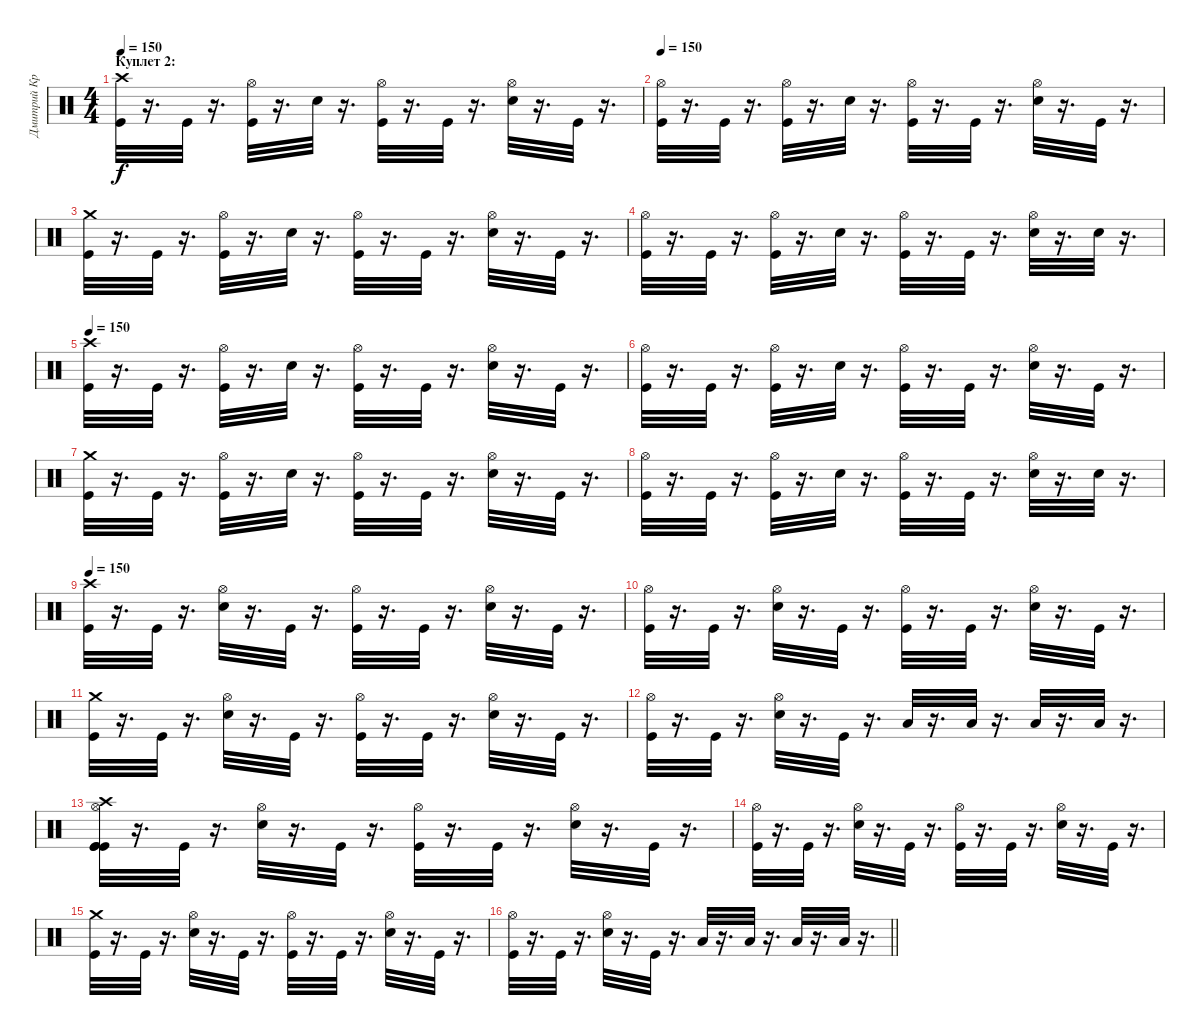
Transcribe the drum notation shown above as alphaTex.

\track ("Дмитрий Кривенков" "Дмитрий Кр") {instrument percussion}
\staff {score}
\articulation defaults
\ts (4 4)
\section ("" "Куплет 2:")
\tempo 150
\clef neutral
\ks c
("Crash high (hit)" "Kick (hit)").32{dy f} r.16{d} "Kick (hit)".32 r.16{d} ("Hi-Hat (open)" "Kick (hit)").32 r.16{d} "Electric Snare (hit)".32 r.16{d} ("Hi-Hat (open)" "Kick (hit)").32 r.16{d} "Kick (hit)".32 r.16{d} ("Hi-Hat (open)" "Electric Snare (hit)").32 r.16{d} "Kick (hit)".32 r.16{d} |
\tempo 150
("Hi-Hat (open)" "Kick (hit)").32 r.16{d} "Kick (hit)".32 r.16{d} ("Hi-Hat (open)" "Kick (hit)").32 r.16{d} "Electric Snare (hit)".32 r.16{d} ("Hi-Hat (open)" "Kick (hit)").32 r.16{d} "Kick (hit)".32 r.16{d} ("Hi-Hat (open)" "Electric Snare (hit)").32 r.16{d} "Kick (hit)".32 r.16{d} |
("Crash medium (hit)" "Kick (hit)").32 r.16{d} "Kick (hit)".32 r.16{d} ("Hi-Hat (open)" "Kick (hit)").32 r.16{d} "Electric Snare (hit)".32 r.16{d} ("Hi-Hat (open)" "Kick (hit)").32 r.16{d} "Kick (hit)".32 r.16{d} ("Hi-Hat (open)" "Electric Snare (hit)").32 r.16{d} "Kick (hit)".32 r.16{d} |
("Hi-Hat (open)" "Kick (hit)").32 r.16{d} "Kick (hit)".32 r.16{d} ("Hi-Hat (open)" "Kick (hit)").32 r.16{d} "Electric Snare (hit)".32 r.16{d} ("Hi-Hat (open)" "Kick (hit)").32 r.16{d} "Kick (hit)".32 r.16{d} ("Hi-Hat (open)" "Electric Snare (hit)").32 r.16{d} "Electric Snare (hit)".32 r.16{d} |
\tempo 150
("Crash high (hit)" "Kick (hit)").32 r.16{d} "Kick (hit)".32 r.16{d} ("Hi-Hat (open)" "Kick (hit)").32 r.16{d} "Electric Snare (hit)".32 r.16{d} ("Hi-Hat (open)" "Kick (hit)").32 r.16{d} "Kick (hit)".32 r.16{d} ("Hi-Hat (open)" "Electric Snare (hit)").32 r.16{d} "Kick (hit)".32 r.16{d} |
("Hi-Hat (open)" "Kick (hit)").32 r.16{d} "Kick (hit)".32 r.16{d} ("Hi-Hat (open)" "Kick (hit)").32 r.16{d} "Electric Snare (hit)".32 r.16{d} ("Hi-Hat (open)" "Kick (hit)").32 r.16{d} "Kick (hit)".32 r.16{d} ("Hi-Hat (open)" "Electric Snare (hit)").32 r.16{d} "Kick (hit)".32 r.16{d} |
("Crash medium (hit)" "Kick (hit)").32 r.16{d} "Kick (hit)".32 r.16{d} ("Hi-Hat (open)" "Kick (hit)").32 r.16{d} "Electric Snare (hit)".32 r.16{d} ("Hi-Hat (open)" "Kick (hit)").32 r.16{d} "Kick (hit)".32 r.16{d} ("Hi-Hat (open)" "Electric Snare (hit)").32 r.16{d} "Kick (hit)".32 r.16{d} |
("Hi-Hat (open)" "Kick (hit)").32 r.16{d} "Kick (hit)".32 r.16{d} ("Hi-Hat (open)" "Kick (hit)").32 r.16{d} "Electric Snare (hit)".32 r.16{d} ("Hi-Hat (open)" "Kick (hit)").32 r.16{d} "Kick (hit)".32 r.16{d} ("Hi-Hat (open)" "Electric Snare (hit)").32 r.16{d} "Electric Snare (hit)".32 r.16{d} |
\tempo 150
("Crash high (hit)" "Kick (hit)").32 r.16{d} "Kick (hit)".32 r.16{d} ("Hi-Hat (open)" "Electric Snare (hit)").32 r.16{d} "Kick (hit)".32 r.16{d} ("Hi-Hat (open)" "Kick (hit)").32 r.16{d} "Kick (hit)".32 r.16{d} ("Hi-Hat (open)" "Electric Snare (hit)").32 r.16{d} "Kick (hit)".32 r.16{d} |
("Hi-Hat (open)" "Kick (hit)").32 r.16{d} "Kick (hit)".32 r.16{d} ("Hi-Hat (open)" "Electric Snare (hit)").32 r.16{d} "Kick (hit)".32 r.16{d} ("Hi-Hat (open)" "Kick (hit)").32 r.16{d} "Kick (hit)".32 r.16{d} ("Hi-Hat (open)" "Electric Snare (hit)").32 r.16{d} "Kick (hit)".32 r.16{d} |
("Crash medium (hit)" "Kick (hit)").32 r.16{d} "Kick (hit)".32 r.16{d} ("Hi-Hat (open)" "Electric Snare (hit)").32 r.16{d} "Kick (hit)".32 r.16{d} ("Hi-Hat (open)" "Kick (hit)").32 r.16{d} "Kick (hit)".32 r.16{d} ("Hi-Hat (open)" "Electric Snare (hit)").32 r.16{d} "Kick (hit)".32 r.16{d} |
("Hi-Hat (open)" "Kick (hit)").32 r.16{d} "Kick (hit)".32 r.16{d} ("Hi-Hat (open)" "Electric Snare (hit)").32 r.16{d} "Kick (hit)".32 r.16{d} "Low Tom (hit)".32 r.16{d} "Low Tom (hit)".32 r.16{d} "Low Floor Tom (hit)".32 r.16{d} "Low Floor Tom (hit)".32 r.16{d} |
("Hi-Hat (open)" "Kick (hit)" "Kick (hit)" "Crash high (hit)" "Kick (hit)").32 r.16{d} "Kick (hit)".32 r.16{d} ("Hi-Hat (open)" "Electric Snare (hit)").32 r.16{d} "Kick (hit)".32 r.16{d} ("Hi-Hat (open)" "Kick (hit)").32 r.16{d} "Kick (hit)".32 r.16{d} ("Hi-Hat (open)" "Electric Snare (hit)").32 r.16{d} "Kick (hit)".32 r.16{d} |
("Hi-Hat (open)" "Kick (hit)").32 r.16{d} "Kick (hit)".32 r.16{d} ("Hi-Hat (open)" "Electric Snare (hit)").32 r.16{d} "Kick (hit)".32 r.16{d} ("Hi-Hat (open)" "Kick (hit)").32 r.16{d} "Kick (hit)".32 r.16{d} ("Hi-Hat (open)" "Electric Snare (hit)").32 r.16{d} "Kick (hit)".32 r.16{d} |
("Crash medium (hit)" "Kick (hit)").32 r.16{d} "Kick (hit)".32 r.16{d} ("Hi-Hat (open)" "Electric Snare (hit)").32 r.16{d} "Kick (hit)".32 r.16{d} ("Hi-Hat (open)" "Kick (hit)").32 r.16{d} "Kick (hit)".32 r.16{d} ("Hi-Hat (open)" "Electric Snare (hit)").32 r.16{d} "Kick (hit)".32 r.16{d} |
\barLineRight lightlight
("Hi-Hat (open)" "Kick (hit)").32 r.16{d} "Kick (hit)".32 r.16{d} ("Hi-Hat (open)" "Electric Snare (hit)").32 r.16{d} "Kick (hit)".32 r.16{d} "Low Tom (hit)".32 r.16{d} "Low Tom (hit)".32 r.16{d} "Low Floor Tom (hit)".32 r.16{d} "Low Floor Tom (hit)".32 r.16{d}
